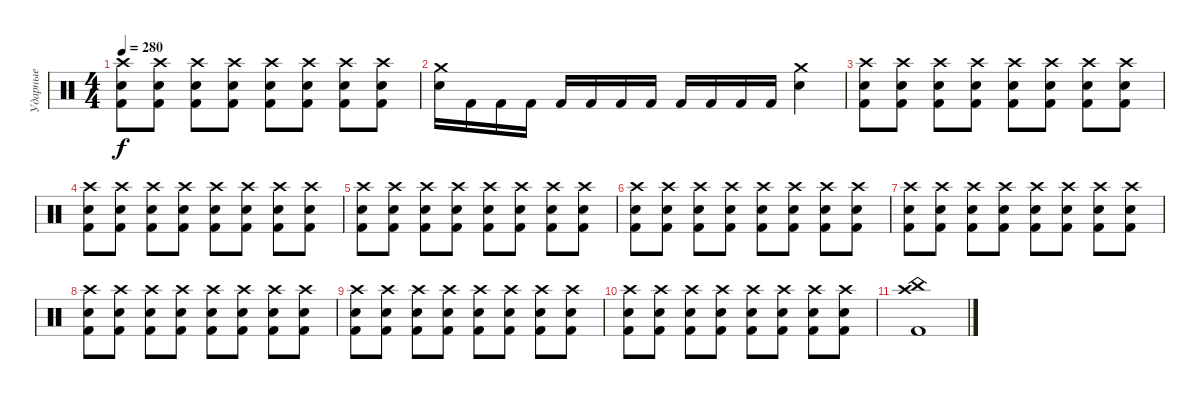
\track ("Ударные" "Ударные") {instrument percussion}
\staff {score}
\articulation defaults
\ts (4 4)
\tempo 280
\clef neutral
\ks c
("Crash high (hit)" "Electric Snare (hit)" "Kick (hit) 2").8{dy f} ("Crash high (hit)" "Electric Snare (hit)" "Kick (hit) 2").8 ("Crash high (hit)" "Electric Snare (hit)" "Kick (hit) 2").8 ("Crash high (hit)" "Electric Snare (hit)" "Kick (hit) 2").8 ("Crash high (hit)" "Electric Snare (hit)" "Kick (hit) 2").8 ("Crash high (hit)" "Electric Snare (hit)" "Kick (hit) 2").8 ("Crash high (hit)" "Electric Snare (hit)" "Kick (hit) 2").8 ("Crash high (hit)" "Electric Snare (hit)" "Kick (hit) 2").8 |
("Crash medium (hit)" "Electric Snare (hit)").16 "Kick (hit) 2".16 "Kick (hit) 2".16 "Kick (hit) 2".16 "Kick (hit) 2".16 "Kick (hit) 2".16 "Kick (hit) 2".16 "Kick (hit) 2".16 "Kick (hit) 2".16 "Kick (hit) 2".16 "Kick (hit) 2".16 "Kick (hit) 2".16 ("Crash medium (hit)" "Electric Snare (hit)").4 |
("Crash high (hit)" "Electric Snare (hit)" "Kick (hit) 2").8 ("Crash high (hit)" "Electric Snare (hit)" "Kick (hit) 2").8 ("Crash high (hit)" "Electric Snare (hit)" "Kick (hit) 2").8 ("Crash high (hit)" "Electric Snare (hit)" "Kick (hit) 2").8 ("Crash high (hit)" "Electric Snare (hit)" "Kick (hit) 2").8 ("Crash high (hit)" "Electric Snare (hit)" "Kick (hit) 2").8 ("Crash high (hit)" "Electric Snare (hit)" "Kick (hit) 2").8 ("Crash high (hit)" "Electric Snare (hit)" "Kick (hit) 2").8 |
("Crash high (hit)" "Electric Snare (hit)" "Kick (hit) 2").8 ("Crash high (hit)" "Electric Snare (hit)" "Kick (hit) 2").8 ("Crash high (hit)" "Electric Snare (hit)" "Kick (hit) 2").8 ("Crash high (hit)" "Electric Snare (hit)" "Kick (hit) 2").8 ("Crash high (hit)" "Electric Snare (hit)" "Kick (hit) 2").8 ("Crash high (hit)" "Electric Snare (hit)" "Kick (hit) 2").8 ("Crash high (hit)" "Electric Snare (hit)" "Kick (hit) 2").8 ("Crash high (hit)" "Electric Snare (hit)" "Kick (hit) 2").8 |
("Crash high (hit)" "Electric Snare (hit)" "Kick (hit) 2").8 ("Crash high (hit)" "Electric Snare (hit)" "Kick (hit) 2").8 ("Crash high (hit)" "Electric Snare (hit)" "Kick (hit) 2").8 ("Crash high (hit)" "Electric Snare (hit)" "Kick (hit) 2").8 ("Crash high (hit)" "Electric Snare (hit)" "Kick (hit) 2").8 ("Crash high (hit)" "Electric Snare (hit)" "Kick (hit) 2").8 ("Crash high (hit)" "Electric Snare (hit)" "Kick (hit) 2").8 ("Crash high (hit)" "Electric Snare (hit)" "Kick (hit) 2").8 |
("Crash high (hit)" "Electric Snare (hit)" "Kick (hit) 2").8 ("Crash high (hit)" "Electric Snare (hit)" "Kick (hit) 2").8 ("Crash high (hit)" "Electric Snare (hit)" "Kick (hit) 2").8 ("Crash high (hit)" "Electric Snare (hit)" "Kick (hit) 2").8 ("Crash high (hit)" "Electric Snare (hit)" "Kick (hit) 2").8 ("Crash high (hit)" "Electric Snare (hit)" "Kick (hit) 2").8 ("Crash high (hit)" "Electric Snare (hit)" "Kick (hit) 2").8 ("Crash high (hit)" "Electric Snare (hit)" "Kick (hit) 2").8 |
("Crash high (hit)" "Electric Snare (hit)" "Kick (hit) 2").8 ("Crash high (hit)" "Electric Snare (hit)" "Kick (hit) 2").8 ("Crash high (hit)" "Electric Snare (hit)" "Kick (hit) 2").8 ("Crash high (hit)" "Electric Snare (hit)" "Kick (hit) 2").8 ("Crash high (hit)" "Electric Snare (hit)" "Kick (hit) 2").8 ("Crash high (hit)" "Electric Snare (hit)" "Kick (hit) 2").8 ("Crash high (hit)" "Electric Snare (hit)" "Kick (hit) 2").8 ("Crash high (hit)" "Electric Snare (hit)" "Kick (hit) 2").8 |
("Crash high (hit)" "Electric Snare (hit)" "Kick (hit) 2").8 ("Crash high (hit)" "Electric Snare (hit)" "Kick (hit) 2").8 ("Crash high (hit)" "Electric Snare (hit)" "Kick (hit) 2").8 ("Crash high (hit)" "Electric Snare (hit)" "Kick (hit) 2").8 ("Crash high (hit)" "Electric Snare (hit)" "Kick (hit) 2").8 ("Crash high (hit)" "Electric Snare (hit)" "Kick (hit) 2").8 ("Crash high (hit)" "Electric Snare (hit)" "Kick (hit) 2").8 ("Crash high (hit)" "Electric Snare (hit)" "Kick (hit) 2").8 |
("Crash high (hit)" "Electric Snare (hit)" "Kick (hit) 2").8 ("Crash high (hit)" "Electric Snare (hit)" "Kick (hit) 2").8 ("Crash high (hit)" "Electric Snare (hit)" "Kick (hit) 2").8 ("Crash high (hit)" "Electric Snare (hit)" "Kick (hit) 2").8 ("Crash high (hit)" "Electric Snare (hit)" "Kick (hit) 2").8 ("Crash high (hit)" "Electric Snare (hit)" "Kick (hit) 2").8 ("Crash high (hit)" "Electric Snare (hit)" "Kick (hit) 2").8 ("Crash high (hit)" "Electric Snare (hit)" "Kick (hit) 2").8 |
("Crash high (hit)" "Electric Snare (hit)" "Kick (hit) 2").8 ("Crash high (hit)" "Electric Snare (hit)" "Kick (hit) 2").8 ("Crash high (hit)" "Electric Snare (hit)" "Kick (hit) 2").8 ("Crash high (hit)" "Electric Snare (hit)" "Kick (hit) 2").8 ("Crash high (hit)" "Electric Snare (hit)" "Kick (hit) 2").8 ("Crash high (hit)" "Electric Snare (hit)" "Kick (hit) 2").8 ("Crash high (hit)" "Electric Snare (hit)" "Kick (hit) 2").8 ("Crash high (hit)" "Electric Snare (hit)" "Kick (hit) 2").8 |
("China (hit)" "Crash high (hit)" "Kick (hit) 2").1
